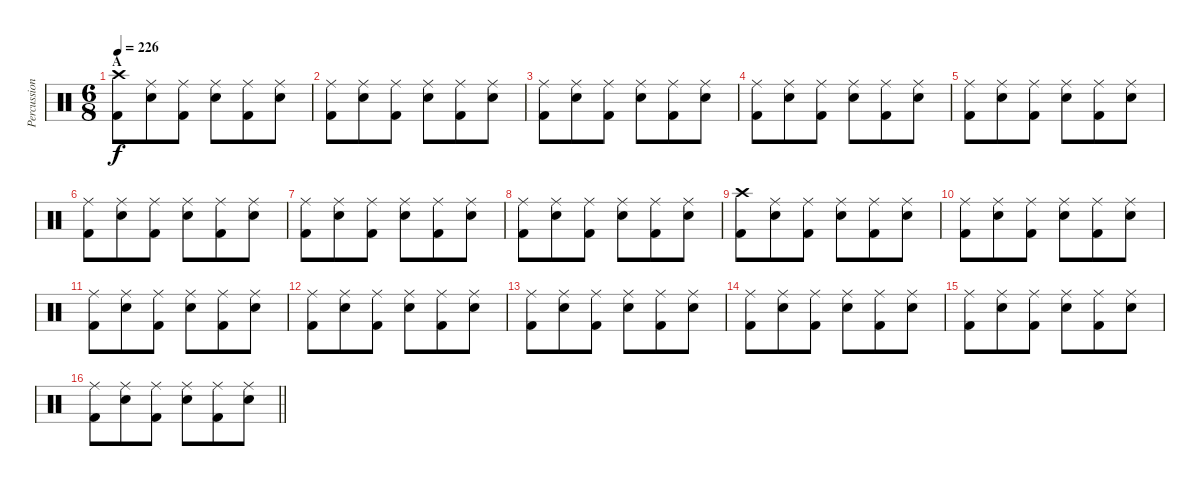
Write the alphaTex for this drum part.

\track ("Percussion" "Percussion") {instrument percussion}
\staff {score}
\articulation defaults
\ts (6 8)
\section ("" "A")
\tempo 226
\clef neutral
\ks c
("Crash high (hit)" "Kick (hit) 2").8{dy f} ("Ride (middle)" "Electric Snare (hit)").8 ("Ride (middle)" "Kick (hit) 2").8 ("Ride (middle)" "Electric Snare (hit)").8 ("Ride (middle)" "Kick (hit) 2").8 ("Ride (middle)" "Electric Snare (hit)").8 |
("Ride (middle)" "Kick (hit) 2").8 ("Ride (middle)" "Electric Snare (hit)").8 ("Ride (middle)" "Kick (hit) 2").8 ("Ride (middle)" "Electric Snare (hit)").8 ("Ride (middle)" "Kick (hit) 2").8 ("Ride (middle)" "Electric Snare (hit)").8 |
("Ride (middle)" "Kick (hit) 2").8 ("Ride (middle)" "Electric Snare (hit)").8 ("Ride (middle)" "Kick (hit) 2").8 ("Ride (middle)" "Electric Snare (hit)").8 ("Ride (middle)" "Kick (hit) 2").8 ("Ride (middle)" "Electric Snare (hit)").8 |
("Ride (middle)" "Kick (hit) 2").8 ("Ride (middle)" "Electric Snare (hit)").8 ("Ride (middle)" "Kick (hit) 2").8 ("Ride (middle)" "Electric Snare (hit)").8 ("Ride (middle)" "Kick (hit) 2").8 ("Ride (middle)" "Electric Snare (hit)").8 |
("Ride (middle)" "Kick (hit) 2").8 ("Ride (middle)" "Electric Snare (hit)").8 ("Ride (middle)" "Kick (hit) 2").8 ("Ride (middle)" "Electric Snare (hit)").8 ("Ride (middle)" "Kick (hit) 2").8 ("Ride (middle)" "Electric Snare (hit)").8 |
("Ride (middle)" "Kick (hit) 2").8 ("Ride (middle)" "Electric Snare (hit)").8 ("Ride (middle)" "Kick (hit) 2").8 ("Ride (middle)" "Electric Snare (hit)").8 ("Ride (middle)" "Kick (hit) 2").8 ("Ride (middle)" "Electric Snare (hit)").8 |
("Ride (middle)" "Kick (hit) 2").8 ("Ride (middle)" "Electric Snare (hit)").8 ("Ride (middle)" "Kick (hit) 2").8 ("Ride (middle)" "Electric Snare (hit)").8 ("Ride (middle)" "Kick (hit) 2").8 ("Ride (middle)" "Electric Snare (hit)").8 |
("Ride (middle)" "Kick (hit) 2").8 ("Ride (middle)" "Electric Snare (hit)").8 ("Ride (middle)" "Kick (hit) 2").8 ("Ride (middle)" "Electric Snare (hit)").8 ("Ride (middle)" "Kick (hit) 2").8 ("Ride (middle)" "Electric Snare (hit)").8 |
("Crash high (hit)" "Kick (hit) 2").8 ("Ride (middle)" "Electric Snare (hit)").8 ("Ride (middle)" "Kick (hit) 2").8 ("Ride (middle)" "Electric Snare (hit)").8 ("Ride (middle)" "Kick (hit) 2").8 ("Ride (middle)" "Electric Snare (hit)").8 |
("Ride (middle)" "Kick (hit) 2").8 ("Ride (middle)" "Electric Snare (hit)").8 ("Ride (middle)" "Kick (hit) 2").8 ("Ride (middle)" "Electric Snare (hit)").8 ("Ride (middle)" "Kick (hit) 2").8 ("Ride (middle)" "Electric Snare (hit)").8 |
("Ride (middle)" "Kick (hit) 2").8 ("Ride (middle)" "Electric Snare (hit)").8 ("Ride (middle)" "Kick (hit) 2").8 ("Ride (middle)" "Electric Snare (hit)").8 ("Ride (middle)" "Kick (hit) 2").8 ("Ride (middle)" "Electric Snare (hit)").8 |
("Ride (middle)" "Kick (hit) 2").8 ("Ride (middle)" "Electric Snare (hit)").8 ("Ride (middle)" "Kick (hit) 2").8 ("Ride (middle)" "Electric Snare (hit)").8 ("Ride (middle)" "Kick (hit) 2").8 ("Ride (middle)" "Electric Snare (hit)").8 |
("Ride (middle)" "Kick (hit) 2").8 ("Ride (middle)" "Electric Snare (hit)").8 ("Ride (middle)" "Kick (hit) 2").8 ("Ride (middle)" "Electric Snare (hit)").8 ("Ride (middle)" "Kick (hit) 2").8 ("Ride (middle)" "Electric Snare (hit)").8 |
("Ride (middle)" "Kick (hit) 2").8 ("Ride (middle)" "Electric Snare (hit)").8 ("Ride (middle)" "Kick (hit) 2").8 ("Ride (middle)" "Electric Snare (hit)").8 ("Ride (middle)" "Kick (hit) 2").8 ("Ride (middle)" "Electric Snare (hit)").8 |
("Ride (middle)" "Kick (hit) 2").8 ("Ride (middle)" "Electric Snare (hit)").8 ("Ride (middle)" "Kick (hit) 2").8 ("Ride (middle)" "Electric Snare (hit)").8 ("Ride (middle)" "Kick (hit) 2").8 ("Ride (middle)" "Electric Snare (hit)").8 |
\barLineRight lightlight
("Ride (middle)" "Kick (hit) 2").8 ("Ride (middle)" "Electric Snare (hit)").8 ("Ride (middle)" "Kick (hit) 2").8 ("Ride (middle)" "Electric Snare (hit)").8 ("Ride (middle)" "Kick (hit) 2").8 ("Ride (middle)" "Electric Snare (hit)").8
